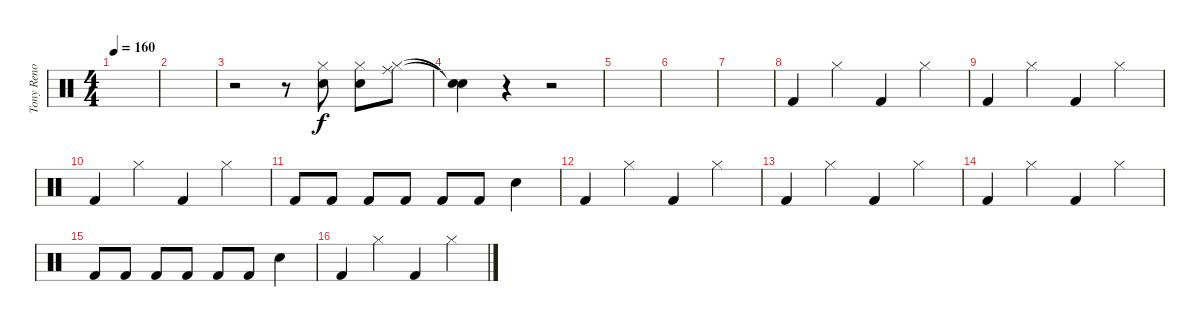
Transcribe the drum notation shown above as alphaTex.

\track ("Tony Reno" "Tony Reno") {instrument percussion}
\staff {score}
\articulation defaults
\ts (4 4)
\tempo 160
\clef neutral
\ks c
|
|
r.2 r.8 ("Hi-Hat (closed)" "Snare (hit) 2").8 ("Hi-Hat (closed)" "Snare (hit) 2").8 ("Ride (middle)" "Hi-Hat (closed)").8 |
("Snare (hit)"{t} "Snare (hit)"{t}).4 r.4 r.2 |
|
|
|
"Kick (hit) 2".4 "Hi-Hat (closed)".4 "Kick (hit) 2".4 "Hi-Hat (closed)".4 |
"Kick (hit) 2".4 "Hi-Hat (closed)".4 "Kick (hit) 2".4 "Hi-Hat (closed)".4 |
"Kick (hit) 2".4 "Hi-Hat (closed)".4 "Kick (hit) 2".4 "Hi-Hat (closed)".4 |
"Kick (hit) 2".8 "Kick (hit) 2".8 "Kick (hit) 2".8 "Kick (hit) 2".8 "Kick (hit) 2".8 "Kick (hit) 2".8 "Snare (hit) 2".4 |
"Kick (hit) 2".4 "Hi-Hat (closed)".4 "Kick (hit) 2".4 "Hi-Hat (closed)".4 |
"Kick (hit) 2".4 "Hi-Hat (closed)".4 "Kick (hit) 2".4 "Hi-Hat (closed)".4 |
"Kick (hit) 2".4 "Hi-Hat (closed)".4 "Kick (hit) 2".4 "Hi-Hat (closed)".4 |
"Kick (hit) 2".8 "Kick (hit) 2".8 "Kick (hit) 2".8 "Kick (hit) 2".8 "Kick (hit) 2".8 "Kick (hit) 2".8 "Snare (hit) 2".4 |
"Kick (hit) 2".4 "Hi-Hat (closed)".4 "Kick (hit) 2".4 "Hi-Hat (closed)".4
